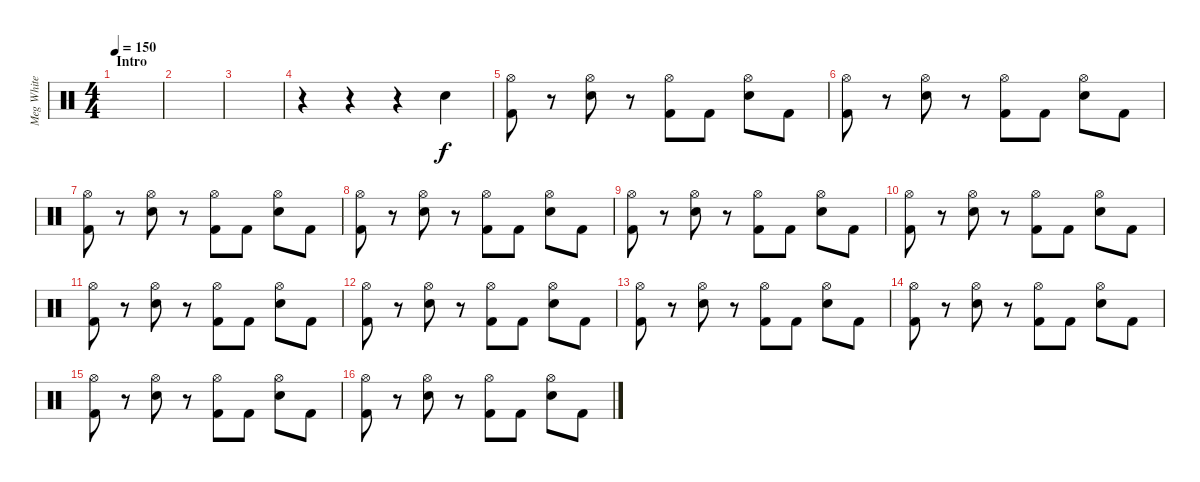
\track ("Meg White - Drums" "Meg White ") {instrument percussion}
\staff {score}
\articulation defaults
\ts (4 4)
\section ("" "Intro")
\tempo 150
\clef neutral
\ks c
|
|
|
r.4 r.4 r.4 "Electric Snare (hit)".4 |
("Hi-Hat (open)" "Kick (hit) 2").8 r.8 ("Hi-Hat (open)" "Electric Snare (hit)").8 r.8 ("Hi-Hat (open)" "Kick (hit) 2").8 "Kick (hit) 2".8 ("Hi-Hat (open)" "Electric Snare (hit)").8 "Kick (hit) 2".8 |
("Hi-Hat (open)" "Kick (hit) 2").8 r.8 ("Hi-Hat (open)" "Electric Snare (hit)").8 r.8 ("Hi-Hat (open)" "Kick (hit) 2").8 "Kick (hit) 2".8 ("Hi-Hat (open)" "Electric Snare (hit)").8 "Kick (hit) 2".8 |
("Hi-Hat (open)" "Kick (hit) 2").8 r.8 ("Hi-Hat (open)" "Electric Snare (hit)").8 r.8 ("Hi-Hat (open)" "Kick (hit) 2").8 "Kick (hit) 2".8 ("Hi-Hat (open)" "Electric Snare (hit)").8 "Kick (hit) 2".8 |
("Hi-Hat (open)" "Kick (hit) 2").8 r.8 ("Hi-Hat (open)" "Electric Snare (hit)").8 r.8 ("Hi-Hat (open)" "Kick (hit) 2").8 "Kick (hit) 2".8 ("Hi-Hat (open)" "Electric Snare (hit)").8 "Kick (hit) 2".8 |
("Hi-Hat (open)" "Kick (hit) 2").8 r.8 ("Hi-Hat (open)" "Electric Snare (hit)").8 r.8 ("Hi-Hat (open)" "Kick (hit) 2").8 "Kick (hit) 2".8 ("Hi-Hat (open)" "Electric Snare (hit)").8 "Kick (hit) 2".8 |
("Hi-Hat (open)" "Kick (hit) 2").8 r.8 ("Hi-Hat (open)" "Electric Snare (hit)").8 r.8 ("Hi-Hat (open)" "Kick (hit) 2").8 "Kick (hit) 2".8 ("Hi-Hat (open)" "Electric Snare (hit)").8 "Kick (hit) 2".8 |
("Hi-Hat (open)" "Kick (hit) 2").8 r.8 ("Hi-Hat (open)" "Electric Snare (hit)").8 r.8 ("Hi-Hat (open)" "Kick (hit) 2").8 "Kick (hit) 2".8 ("Hi-Hat (open)" "Electric Snare (hit)").8 "Kick (hit) 2".8 |
("Hi-Hat (open)" "Kick (hit) 2").8 r.8 ("Hi-Hat (open)" "Electric Snare (hit)").8 r.8 ("Hi-Hat (open)" "Kick (hit) 2").8 "Kick (hit) 2".8 ("Hi-Hat (open)" "Electric Snare (hit)").8 "Kick (hit) 2".8 |
("Hi-Hat (open)" "Kick (hit) 2").8 r.8 ("Hi-Hat (open)" "Electric Snare (hit)").8 r.8 ("Hi-Hat (open)" "Kick (hit) 2").8 "Kick (hit) 2".8 ("Hi-Hat (open)" "Electric Snare (hit)").8 "Kick (hit) 2".8 |
("Hi-Hat (open)" "Kick (hit) 2").8 r.8 ("Hi-Hat (open)" "Electric Snare (hit)").8 r.8 ("Hi-Hat (open)" "Kick (hit) 2").8 "Kick (hit) 2".8 ("Hi-Hat (open)" "Electric Snare (hit)").8 "Kick (hit) 2".8 |
("Hi-Hat (open)" "Kick (hit) 2").8 r.8 ("Hi-Hat (open)" "Electric Snare (hit)").8 r.8 ("Hi-Hat (open)" "Kick (hit) 2").8 "Kick (hit) 2".8 ("Hi-Hat (open)" "Electric Snare (hit)").8 "Kick (hit) 2".8 |
("Hi-Hat (open)" "Kick (hit) 2").8 r.8 ("Hi-Hat (open)" "Electric Snare (hit)").8 r.8 ("Hi-Hat (open)" "Kick (hit) 2").8 "Kick (hit) 2".8 ("Hi-Hat (open)" "Electric Snare (hit)").8 "Kick (hit) 2".8
